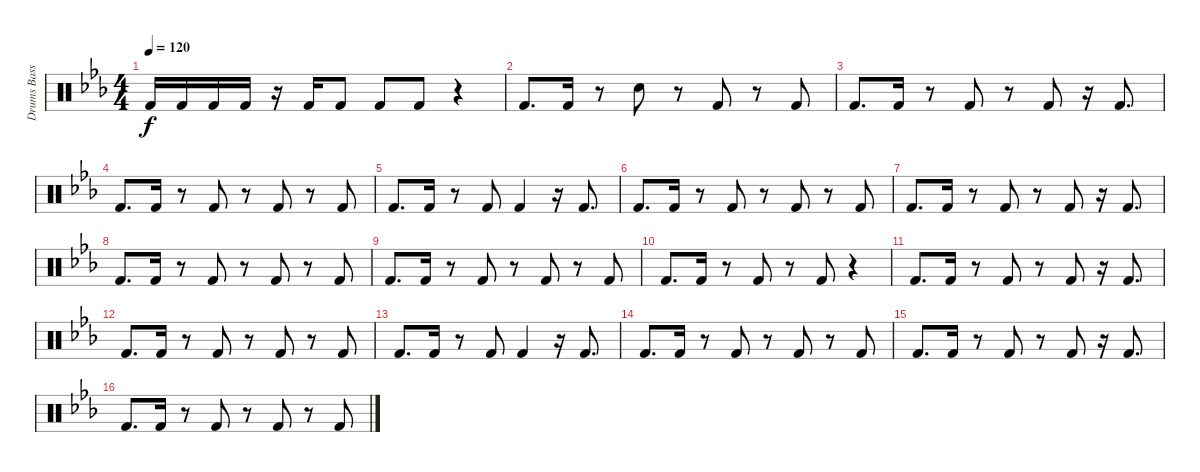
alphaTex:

\track ("Drums Bass" "Drums Bass") {instrument percussion}
\staff {score}
\articulation defaults
\ts (4 4)
\tempo 120
\clef neutral
\ks eb "Kick (hit) 2".16{dy f} "Kick (hit) 2".16 "Kick (hit) 2".16 "Kick (hit) 2".16
r.16 "Kick (hit) 2".16 "Kick (hit) 2".8 "Kick (hit) 2".8 "Kick (hit) 2".8 r.4 |
"Kick (hit) 2".8{d} "Kick (hit) 2".16 r.8 "Snare (hit)".8 r.8 "Kick (hit) 2".8 r.8 "Kick (hit) 2".8 |
"Kick (hit) 2".8{d} "Kick (hit) 2".16 r.8 "Kick (hit) 2".8 r.8 "Kick (hit) 2".8 r.16 "Kick (hit) 2".8{d} |
"Kick (hit) 2".8{d} "Kick (hit) 2".16 r.8 "Kick (hit) 2".8 r.8 "Kick (hit) 2".8 r.8 "Kick (hit) 2".8 |
"Kick (hit) 2".8{d} "Kick (hit) 2".16 r.8 "Kick (hit) 2".8 "Kick (hit) 2".4 r.16 "Kick (hit) 2".8{d} |
"Kick (hit) 2".8{d} "Kick (hit) 2".16 r.8 "Kick (hit) 2".8 r.8 "Kick (hit) 2".8 r.8 "Kick (hit) 2".8 |
"Kick (hit) 2".8{d} "Kick (hit) 2".16 r.8 "Kick (hit) 2".8 r.8 "Kick (hit) 2".8 r.16 "Kick (hit) 2".8{d} |
"Kick (hit) 2".8{d} "Kick (hit) 2".16 r.8 "Kick (hit) 2".8 r.8 "Kick (hit) 2".8 r.8 "Kick (hit) 2".8 |
"Kick (hit) 2".8{d} "Kick (hit) 2".16 r.8 "Kick (hit) 2".8 r.8 "Kick (hit) 2".8 r.8 "Kick (hit) 2".8 |
"Kick (hit) 2".8{d} "Kick (hit) 2".16 r.8 "Kick (hit) 2".8 r.8 "Kick (hit) 2".8 r.4 |
"Kick (hit) 2".8{d} "Kick (hit) 2".16 r.8 "Kick (hit) 2".8 r.8 "Kick (hit) 2".8 r.16 "Kick (hit) 2".8{d} |
"Kick (hit) 2".8{d} "Kick (hit) 2".16 r.8 "Kick (hit) 2".8 r.8 "Kick (hit) 2".8 r.8 "Kick (hit) 2".8 |
"Kick (hit) 2".8{d} "Kick (hit) 2".16 r.8 "Kick (hit) 2".8 "Kick (hit) 2".4 r.16 "Kick (hit) 2".8{d} |
"Kick (hit) 2".8{d} "Kick (hit) 2".16 r.8 "Kick (hit) 2".8 r.8 "Kick (hit) 2".8 r.8 "Kick (hit) 2".8 |
"Kick (hit) 2".8{d} "Kick (hit) 2".16 r.8 "Kick (hit) 2".8 r.8 "Kick (hit) 2".8 r.16 "Kick (hit) 2".8{d} |
"Kick (hit) 2".8{d} "Kick (hit) 2".16 r.8 "Kick (hit) 2".8 r.8 "Kick (hit) 2".8 r.8 "Kick (hit) 2".8
